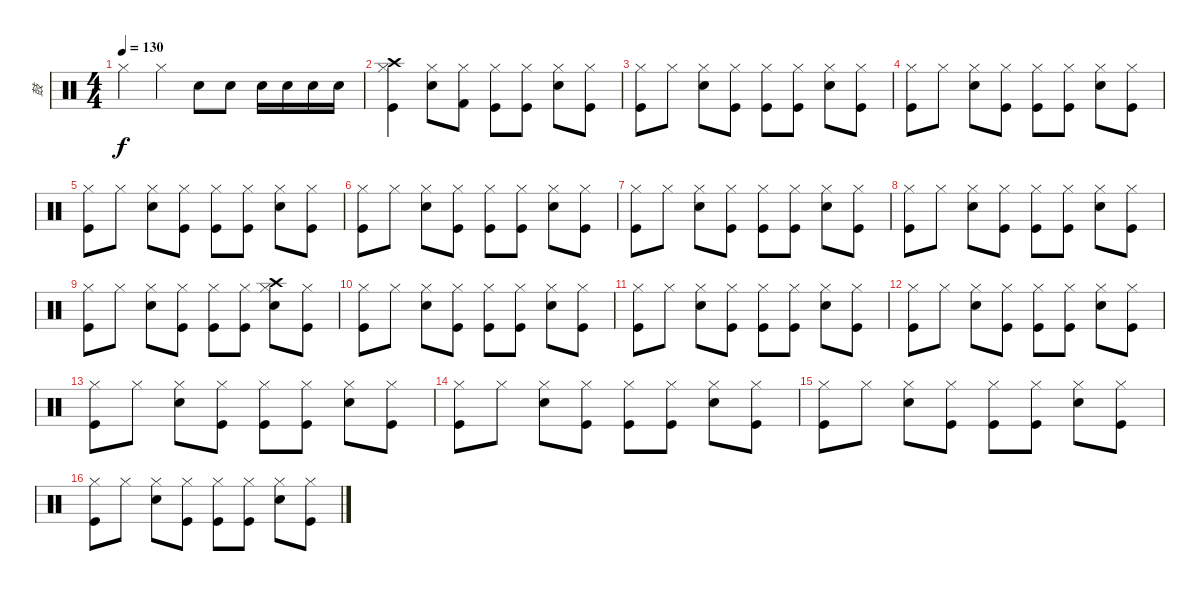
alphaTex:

\track ("鼓" "鼓") {instrument percussion}
\staff {score}
\articulation defaults
\ts (4 4)
\tempo 130
\clef neutral
\ks c "Hi-Hat (closed)".4{dy f} "Hi-Hat (closed)".4 "Electric Snare (hit)".8 "Electric Snare (hit)".8 "Electric Snare (hit)".16 "Electric Snare (hit)".16 "Snare (hit) 2".16 "Snare (hit) 2".16
|
("Hi-Hat (closed)" "Crash high (hit)" "Kick (hit)").4 ("Hi-Hat (closed)" "Snare (hit) 2").8 ("Hi-Hat (closed)" "Kick (hit) 2").8 ("Hi-Hat (closed)" "Kick (hit)").8 ("Hi-Hat (closed)" "Kick (hit)").8 ("Hi-Hat (closed)" "Snare (hit) 2").8 ("Hi-Hat (closed)" "Kick (hit)").8 |
("Hi-Hat (closed)" "Kick (hit)").8 "Hi-Hat (closed)".8 ("Hi-Hat (closed)" "Snare (hit) 2").8 ("Hi-Hat (closed)" "Kick (hit)").8 ("Hi-Hat (closed)" "Kick (hit)").8 ("Hi-Hat (closed)" "Kick (hit)").8 ("Hi-Hat (closed)" "Snare (hit) 2").8 ("Hi-Hat (closed)" "Kick (hit)").8 |
("Hi-Hat (closed)" "Kick (hit)").8 "Hi-Hat (closed)".8 ("Hi-Hat (closed)" "Snare (hit) 2").8 ("Hi-Hat (closed)" "Kick (hit)").8 ("Hi-Hat (closed)" "Kick (hit)").8 ("Hi-Hat (closed)" "Kick (hit)").8 ("Hi-Hat (closed)" "Snare (hit) 2").8 ("Hi-Hat (closed)" "Kick (hit)").8 |
("Hi-Hat (closed)" "Kick (hit)").8 "Hi-Hat (closed)".8 ("Hi-Hat (closed)" "Snare (hit) 2").8 ("Hi-Hat (closed)" "Kick (hit)").8 ("Hi-Hat (closed)" "Kick (hit)").8 ("Hi-Hat (closed)" "Kick (hit)").8 ("Hi-Hat (closed)" "Snare (hit) 2").8 ("Hi-Hat (closed)" "Kick (hit)").8 |
("Hi-Hat (closed)" "Kick (hit)").8 "Hi-Hat (closed)".8 ("Hi-Hat (closed)" "Snare (hit) 2").8 ("Hi-Hat (closed)" "Kick (hit)").8 ("Hi-Hat (closed)" "Kick (hit)").8 ("Hi-Hat (closed)" "Kick (hit)").8 ("Hi-Hat (closed)" "Snare (hit) 2").8 ("Hi-Hat (closed)" "Kick (hit)").8 |
("Hi-Hat (closed)" "Kick (hit)").8 "Hi-Hat (closed)".8 ("Hi-Hat (closed)" "Snare (hit) 2").8 ("Hi-Hat (closed)" "Kick (hit)").8 ("Hi-Hat (closed)" "Kick (hit)").8 ("Hi-Hat (closed)" "Kick (hit)").8 ("Hi-Hat (closed)" "Snare (hit) 2").8 ("Hi-Hat (closed)" "Kick (hit)").8 |
("Hi-Hat (closed)" "Kick (hit)").8 "Hi-Hat (closed)".8 ("Hi-Hat (closed)" "Snare (hit) 2").8 ("Hi-Hat (closed)" "Kick (hit)").8 ("Hi-Hat (closed)" "Kick (hit)").8 ("Hi-Hat (closed)" "Kick (hit)").8 ("Hi-Hat (closed)" "Snare (hit) 2").8 ("Hi-Hat (closed)" "Kick (hit)").8 |
("Hi-Hat (closed)" "Kick (hit)").8 "Hi-Hat (closed)".8 ("Hi-Hat (closed)" "Snare (hit) 2").8 ("Hi-Hat (closed)" "Kick (hit)").8 ("Hi-Hat (closed)" "Kick (hit)").8 ("Hi-Hat (closed)" "Kick (hit)").8 ("Crash high (hit)" "Hi-Hat (closed)" "Snare (hit) 2").8 ("Hi-Hat (closed)" "Kick (hit)").8 |
("Hi-Hat (closed)" "Kick (hit)").8 "Hi-Hat (closed)".8 ("Hi-Hat (closed)" "Snare (hit) 2").8 ("Hi-Hat (closed)" "Kick (hit)").8 ("Hi-Hat (closed)" "Kick (hit)").8 ("Hi-Hat (closed)" "Kick (hit)").8 ("Hi-Hat (closed)" "Snare (hit) 2").8 ("Hi-Hat (closed)" "Kick (hit)").8 |
("Hi-Hat (closed)" "Kick (hit)").8 "Hi-Hat (closed)".8 ("Hi-Hat (closed)" "Snare (hit) 2").8 ("Hi-Hat (closed)" "Kick (hit)").8 ("Hi-Hat (closed)" "Kick (hit)").8 ("Hi-Hat (closed)" "Kick (hit)").8 ("Hi-Hat (closed)" "Snare (hit) 2").8 ("Hi-Hat (closed)" "Kick (hit)").8 |
("Hi-Hat (closed)" "Kick (hit)").8 "Hi-Hat (closed)".8 ("Hi-Hat (closed)" "Snare (hit) 2").8 ("Hi-Hat (closed)" "Kick (hit)").8 ("Hi-Hat (closed)" "Kick (hit)").8 ("Hi-Hat (closed)" "Kick (hit)").8 ("Hi-Hat (closed)" "Snare (hit) 2").8 ("Hi-Hat (closed)" "Kick (hit)").8 |
("Hi-Hat (closed)" "Kick (hit)").8 "Hi-Hat (closed)".8 ("Hi-Hat (closed)" "Snare (hit) 2").8 ("Hi-Hat (closed)" "Kick (hit)").8 ("Hi-Hat (closed)" "Kick (hit)").8 ("Hi-Hat (closed)" "Kick (hit)").8 ("Hi-Hat (closed)" "Snare (hit) 2").8 ("Hi-Hat (closed)" "Kick (hit)").8 |
("Hi-Hat (closed)" "Kick (hit)").8 "Hi-Hat (closed)".8 ("Hi-Hat (closed)" "Snare (hit) 2").8 ("Hi-Hat (closed)" "Kick (hit)").8 ("Hi-Hat (closed)" "Kick (hit)").8 ("Hi-Hat (closed)" "Kick (hit)").8 ("Hi-Hat (closed)" "Snare (hit) 2").8 ("Hi-Hat (closed)" "Kick (hit)").8 |
("Hi-Hat (closed)" "Kick (hit)").8 "Hi-Hat (closed)".8 ("Hi-Hat (closed)" "Snare (hit) 2").8 ("Hi-Hat (closed)" "Kick (hit)").8 ("Hi-Hat (closed)" "Kick (hit)").8 ("Hi-Hat (closed)" "Kick (hit)").8 ("Hi-Hat (closed)" "Snare (hit) 2").8 ("Hi-Hat (closed)" "Kick (hit)").8 |
("Hi-Hat (closed)" "Kick (hit)").8 "Hi-Hat (closed)".8 ("Hi-Hat (closed)" "Snare (hit) 2").8 ("Hi-Hat (closed)" "Kick (hit)").8 ("Hi-Hat (closed)" "Kick (hit)").8 ("Hi-Hat (closed)" "Kick (hit)").8 ("Hi-Hat (closed)" "Snare (hit) 2").8 ("Hi-Hat (closed)" "Kick (hit)").8
